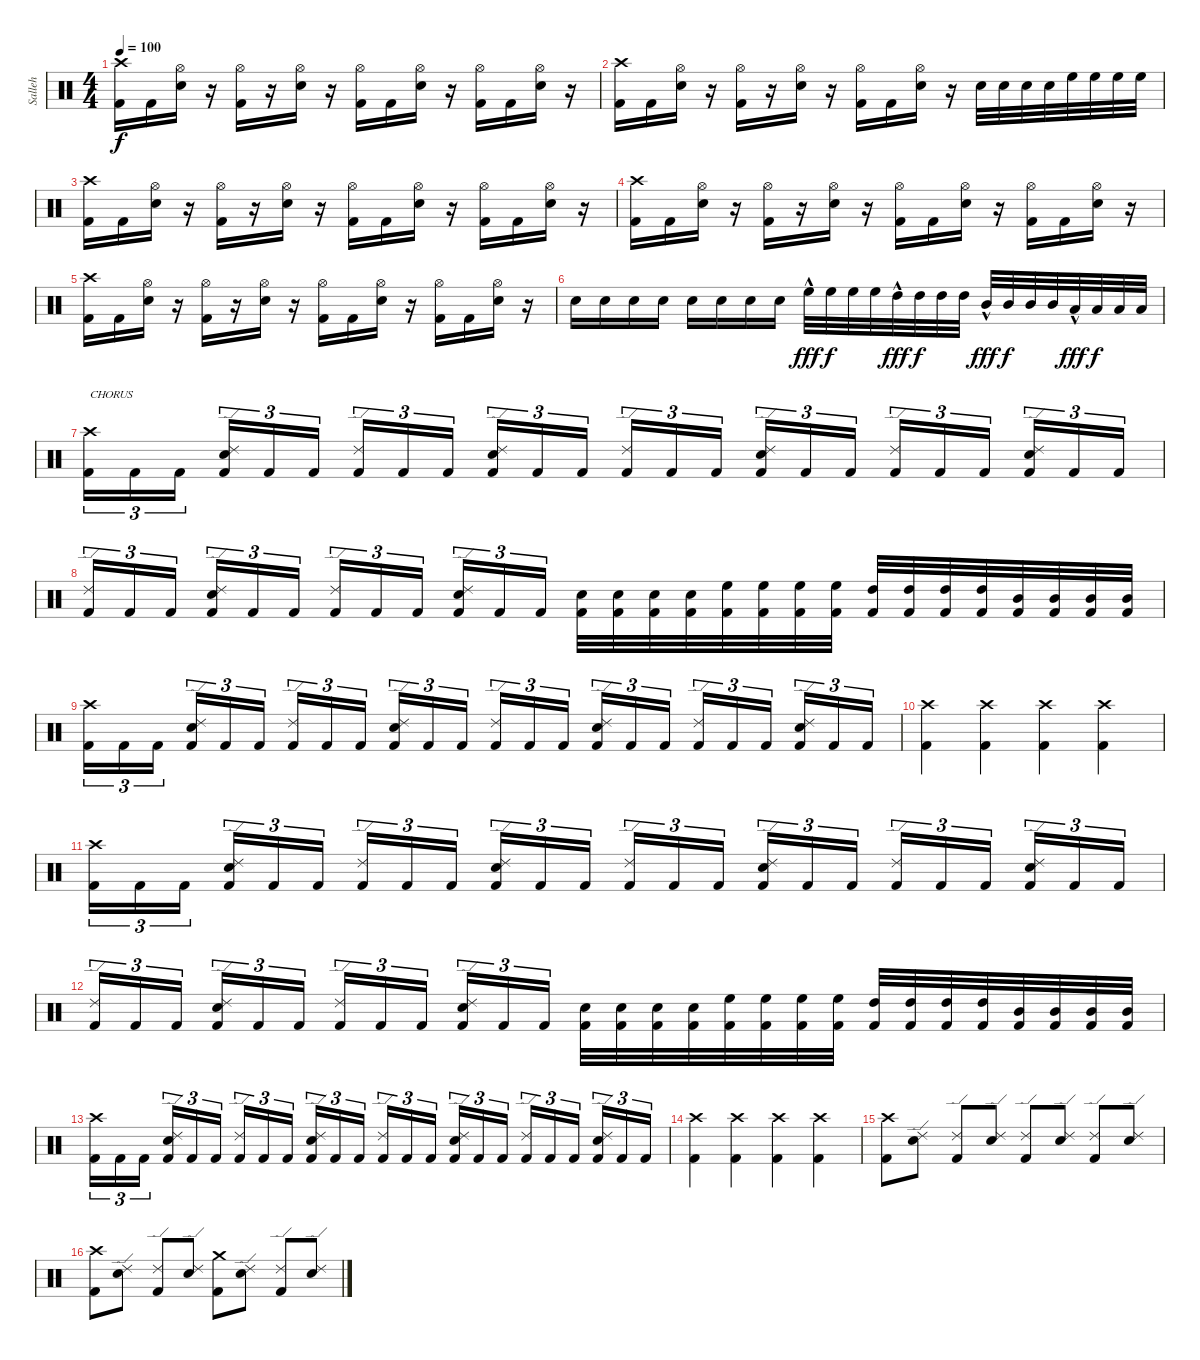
\track ("Salleh" "Salleh") {instrument percussion}
\staff {score}
\articulation defaults
\ts (4 4)
\tempo 100
\clef neutral
\ks c
("Crash high (hit)" "Kick (hit) 2").16{dy f} "Kick (hit) 2".16 ("Hi-Hat (open)" "Electric Snare (hit)").16 r.16 ("Hi-Hat (open)" "Kick (hit) 2").16 r.16 ("Hi-Hat (open)" "Electric Snare (hit)").16 r.16 ("Hi-Hat (open)" "Kick (hit) 2").16 "Kick (hit) 2".16 ("Hi-Hat (open)" "Electric Snare (hit)").16 r.16 ("Hi-Hat (open)" "Kick (hit) 2").16 "Kick (hit) 2".16 ("Hi-Hat (open)" "Electric Snare (hit)").16 r.16 |
("Crash high (hit)" "Kick (hit) 2").16 "Kick (hit) 2".16 ("Hi-Hat (open)" "Electric Snare (hit)").16 r.16 ("Hi-Hat (open)" "Kick (hit) 2").16 r.16 ("Hi-Hat (open)" "Electric Snare (hit)").16 r.16 ("Hi-Hat (open)" "Kick (hit) 2").16 "Kick (hit) 2".16 ("Hi-Hat (open)" "Electric Snare (hit)").16 r.16 "Electric Snare (hit)".32 "Electric Snare (hit)".32 "Electric Snare (hit)".32 "Electric Snare (hit)".32 "High Floor Tom (hit)".32 "High Floor Tom (hit)".32 "High Floor Tom (hit)".32 "High Floor Tom (hit)".32 |
("Crash high (hit)" "Kick (hit) 2").16 "Kick (hit) 2".16 ("Hi-Hat (open)" "Electric Snare (hit)").16 r.16 ("Hi-Hat (open)" "Kick (hit) 2").16 r.16 ("Hi-Hat (open)" "Electric Snare (hit)").16 r.16 ("Hi-Hat (open)" "Kick (hit) 2").16 "Kick (hit) 2".16 ("Hi-Hat (open)" "Electric Snare (hit)").16 r.16 ("Hi-Hat (open)" "Kick (hit) 2").16 "Kick (hit) 2".16 ("Hi-Hat (open)" "Electric Snare (hit)").16 r.16 |
("Crash high (hit)" "Kick (hit) 2").16 "Kick (hit) 2".16 ("Hi-Hat (open)" "Electric Snare (hit)").16 r.16 ("Hi-Hat (open)" "Kick (hit) 2").16 r.16 ("Hi-Hat (open)" "Electric Snare (hit)").16 r.16 ("Hi-Hat (open)" "Kick (hit) 2").16 "Kick (hit) 2".16 ("Hi-Hat (open)" "Electric Snare (hit)").16 r.16 ("Hi-Hat (open)" "Kick (hit) 2").16 "Kick (hit) 2".16 ("Hi-Hat (open)" "Electric Snare (hit)").16 r.16 |
("Crash high (hit)" "Kick (hit) 2").16 "Kick (hit) 2".16 ("Hi-Hat (open)" "Electric Snare (hit)").16 r.16 ("Hi-Hat (open)" "Kick (hit) 2").16 r.16 ("Hi-Hat (open)" "Electric Snare (hit)").16 r.16 ("Hi-Hat (open)" "Kick (hit) 2").16 "Kick (hit) 2".16 ("Hi-Hat (open)" "Electric Snare (hit)").16 r.16 ("Hi-Hat (open)" "Kick (hit) 2").16 "Kick (hit) 2".16 ("Hi-Hat (open)" "Electric Snare (hit)").16 r.16 |
"Electric Snare (hit)".16 "Electric Snare (hit)".16 "Electric Snare (hit)".16 "Electric Snare (hit)".16 "Electric Snare (hit)".16 "Electric Snare (hit)".16 "Electric Snare (hit)".16 "Electric Snare (hit)".16 "High Floor Tom (hit)"{hac}.32{dy fff} "High Floor Tom (hit)".32{dy f} "High Floor Tom (hit)".32 "High Floor Tom (hit)".32 "High Tom (hit)"{hac}.32{dy fff} "High Tom (hit)".32{dy f} "High Tom (hit)".32 "High Tom (hit)".32 "Mid Tom (hit)"{hac}.32{dy fff} "Mid Tom (hit)".32{dy f} "Mid Tom (hit)".32 "Mid Tom (hit)".32 "Low Tom (hit)"{hac}.32{dy fff} "Low Tom (hit)".32{dy f} "Low Tom (hit)".32 "Low Tom (hit)".32 |
("Crash high (hit)" "Kick (hit) 2").16{tu (3 2) txt "CHORUS"} "Kick (hit) 2".16{tu (3 2)} "Kick (hit) 2".16{tu (3 2) beam splitsecondary} ("Ride (edge) 2" "Electric Snare (hit)" "Kick (hit) 2").16{tu (3 2)} "Kick (hit) 2".16{tu (3 2)} "Kick (hit) 2".16{tu (3 2)} ("Ride (edge) 2" "Kick (hit) 2").16{tu (3 2)} "Kick (hit) 2".16{tu (3 2)} "Kick (hit) 2".16{tu (3 2) beam splitsecondary} ("Ride (edge) 2" "Electric Snare (hit)" "Kick (hit) 2").16{tu (3 2)} "Kick (hit) 2".16{tu (3 2)} "Kick (hit) 2".16{tu (3 2)} ("Ride (edge) 2" "Kick (hit) 2").16{tu (3 2)} "Kick (hit) 2".16{tu (3 2)} "Kick (hit) 2".16{tu (3 2) beam splitsecondary} ("Ride (edge) 2" "Electric Snare (hit)" "Kick (hit) 2").16{tu (3 2)} "Kick (hit) 2".16{tu (3 2)} "Kick (hit) 2".16{tu (3 2)} ("Ride (edge) 2" "Kick (hit) 2").16{tu (3 2)} "Kick (hit) 2".16{tu (3 2)} "Kick (hit) 2".16{tu (3 2) beam splitsecondary} ("Ride (edge) 2" "Electric Snare (hit)" "Kick (hit) 2").16{tu (3 2)} "Kick (hit) 2".16{tu (3 2)} "Kick (hit) 2".16{tu (3 2)} |
("Ride (edge) 2" "Kick (hit) 2").16{tu (3 2)} "Kick (hit) 2".16{tu (3 2)} "Kick (hit) 2".16{tu (3 2) beam splitsecondary} ("Ride (edge) 2" "Electric Snare (hit)" "Kick (hit) 2").16{tu (3 2)} "Kick (hit) 2".16{tu (3 2)} "Kick (hit) 2".16{tu (3 2)} ("Ride (edge) 2" "Kick (hit) 2").16{tu (3 2)} "Kick (hit) 2".16{tu (3 2)} "Kick (hit) 2".16{tu (3 2) beam splitsecondary} ("Ride (edge) 2" "Electric Snare (hit)" "Kick (hit) 2").16{tu (3 2)} "Kick (hit) 2".16{tu (3 2)} "Kick (hit) 2".16{tu (3 2)} ("Electric Snare (hit)" "Kick (hit) 2").32 ("Electric Snare (hit)" "Kick (hit) 2").32 ("Electric Snare (hit)" "Kick (hit) 2").32 ("Electric Snare (hit)" "Kick (hit) 2").32 ("High Floor Tom (hit)" "Kick (hit) 2").32 ("High Floor Tom (hit)" "Kick (hit) 2").32 ("High Floor Tom (hit)" "Kick (hit) 2").32 ("High Floor Tom (hit)" "Kick (hit) 2").32 ("High Tom (hit)" "Kick (hit) 2").32 ("High Tom (hit)" "Kick (hit) 2").32 ("High Tom (hit)" "Kick (hit) 2").32 ("High Tom (hit)" "Kick (hit) 2").32 ("Mid Tom (hit)" "Kick (hit) 2").32 ("Mid Tom (hit)" "Kick (hit) 2").32 ("Mid Tom (hit)" "Kick (hit) 2").32 ("Mid Tom (hit)" "Kick (hit) 2").32 |
("Crash high (hit)" "Kick (hit) 2").16{tu (3 2)} "Kick (hit) 2".16{tu (3 2)} "Kick (hit) 2".16{tu (3 2) beam splitsecondary} ("Ride (edge) 2" "Electric Snare (hit)" "Kick (hit) 2").16{tu (3 2)} "Kick (hit) 2".16{tu (3 2)} "Kick (hit) 2".16{tu (3 2)} ("Ride (edge) 2" "Kick (hit) 2").16{tu (3 2)} "Kick (hit) 2".16{tu (3 2)} "Kick (hit) 2".16{tu (3 2) beam splitsecondary} ("Ride (edge) 2" "Electric Snare (hit)" "Kick (hit) 2").16{tu (3 2)} "Kick (hit) 2".16{tu (3 2)} "Kick (hit) 2".16{tu (3 2)} ("Ride (edge) 2" "Kick (hit) 2").16{tu (3 2)} "Kick (hit) 2".16{tu (3 2)} "Kick (hit) 2".16{tu (3 2) beam splitsecondary} ("Ride (edge) 2" "Electric Snare (hit)" "Kick (hit) 2").16{tu (3 2)} "Kick (hit) 2".16{tu (3 2)} "Kick (hit) 2".16{tu (3 2)} ("Ride (edge) 2" "Kick (hit) 2").16{tu (3 2)} "Kick (hit) 2".16{tu (3 2)} "Kick (hit) 2".16{tu (3 2) beam splitsecondary} ("Ride (edge) 2" "Electric Snare (hit)" "Kick (hit) 2").16{tu (3 2)} "Kick (hit) 2".16{tu (3 2)} "Kick (hit) 2".16{tu (3 2)} |
("Crash high (hit)" "Kick (hit) 2").4 ("Crash high (hit)" "Kick (hit) 2").4 ("Crash high (hit)" "Kick (hit) 2").4 ("Crash high (hit)" "Kick (hit) 2").4 |
("Crash high (hit)" "Kick (hit) 2").16{tu (3 2)} "Kick (hit) 2".16{tu (3 2)} "Kick (hit) 2".16{tu (3 2) beam splitsecondary} ("Ride (edge) 2" "Electric Snare (hit)" "Kick (hit) 2").16{tu (3 2)} "Kick (hit) 2".16{tu (3 2)} "Kick (hit) 2".16{tu (3 2)} ("Ride (edge) 2" "Kick (hit) 2").16{tu (3 2)} "Kick (hit) 2".16{tu (3 2)} "Kick (hit) 2".16{tu (3 2) beam splitsecondary} ("Ride (edge) 2" "Electric Snare (hit)" "Kick (hit) 2").16{tu (3 2)} "Kick (hit) 2".16{tu (3 2)} "Kick (hit) 2".16{tu (3 2)} ("Ride (edge) 2" "Kick (hit) 2").16{tu (3 2)} "Kick (hit) 2".16{tu (3 2)} "Kick (hit) 2".16{tu (3 2) beam splitsecondary} ("Ride (edge) 2" "Electric Snare (hit)" "Kick (hit) 2").16{tu (3 2)} "Kick (hit) 2".16{tu (3 2)} "Kick (hit) 2".16{tu (3 2)} ("Ride (edge) 2" "Kick (hit) 2").16{tu (3 2)} "Kick (hit) 2".16{tu (3 2)} "Kick (hit) 2".16{tu (3 2) beam splitsecondary} ("Ride (edge) 2" "Electric Snare (hit)" "Kick (hit) 2").16{tu (3 2)} "Kick (hit) 2".16{tu (3 2)} "Kick (hit) 2".16{tu (3 2)} |
("Ride (edge) 2" "Kick (hit) 2").16{tu (3 2)} "Kick (hit) 2".16{tu (3 2)} "Kick (hit) 2".16{tu (3 2) beam splitsecondary} ("Ride (edge) 2" "Electric Snare (hit)" "Kick (hit) 2").16{tu (3 2)} "Kick (hit) 2".16{tu (3 2)} "Kick (hit) 2".16{tu (3 2)} ("Ride (edge) 2" "Kick (hit) 2").16{tu (3 2)} "Kick (hit) 2".16{tu (3 2)} "Kick (hit) 2".16{tu (3 2) beam splitsecondary} ("Ride (edge) 2" "Electric Snare (hit)" "Kick (hit) 2").16{tu (3 2)} "Kick (hit) 2".16{tu (3 2)} "Kick (hit) 2".16{tu (3 2)} ("Electric Snare (hit)" "Kick (hit) 2").32 ("Electric Snare (hit)" "Kick (hit) 2").32 ("Electric Snare (hit)" "Kick (hit) 2").32 ("Electric Snare (hit)" "Kick (hit) 2").32 ("High Floor Tom (hit)" "Kick (hit) 2").32 ("High Floor Tom (hit)" "Kick (hit) 2").32 ("High Floor Tom (hit)" "Kick (hit) 2").32 ("High Floor Tom (hit)" "Kick (hit) 2").32 ("High Tom (hit)" "Kick (hit) 2").32 ("High Tom (hit)" "Kick (hit) 2").32 ("High Tom (hit)" "Kick (hit) 2").32 ("High Tom (hit)" "Kick (hit) 2").32 ("Mid Tom (hit)" "Kick (hit) 2").32 ("Mid Tom (hit)" "Kick (hit) 2").32 ("Mid Tom (hit)" "Kick (hit) 2").32 ("Mid Tom (hit)" "Kick (hit) 2").32 |
("Crash high (hit)" "Kick (hit) 2").16{tu (3 2)} "Kick (hit) 2".16{tu (3 2)} "Kick (hit) 2".16{tu (3 2) beam splitsecondary} ("Ride (edge) 2" "Electric Snare (hit)" "Kick (hit) 2").16{tu (3 2)} "Kick (hit) 2".16{tu (3 2)} "Kick (hit) 2".16{tu (3 2)} ("Ride (edge) 2" "Kick (hit) 2").16{tu (3 2)} "Kick (hit) 2".16{tu (3 2)} "Kick (hit) 2".16{tu (3 2) beam splitsecondary} ("Ride (edge) 2" "Electric Snare (hit)" "Kick (hit) 2").16{tu (3 2)} "Kick (hit) 2".16{tu (3 2)} "Kick (hit) 2".16{tu (3 2)} ("Ride (edge) 2" "Kick (hit) 2").16{tu (3 2)} "Kick (hit) 2".16{tu (3 2)} "Kick (hit) 2".16{tu (3 2) beam splitsecondary} ("Ride (edge) 2" "Electric Snare (hit)" "Kick (hit) 2").16{tu (3 2)} "Kick (hit) 2".16{tu (3 2)} "Kick (hit) 2".16{tu (3 2)} ("Ride (edge) 2" "Kick (hit) 2").16{tu (3 2)} "Kick (hit) 2".16{tu (3 2)} "Kick (hit) 2".16{tu (3 2) beam splitsecondary} ("Ride (edge) 2" "Electric Snare (hit)" "Kick (hit) 2").16{tu (3 2)} "Kick (hit) 2".16{tu (3 2)} "Kick (hit) 2".16{tu (3 2)} |
("Crash high (hit)" "Kick (hit) 2").4 ("Crash high (hit)" "Kick (hit) 2").4 ("Crash high (hit)" "Kick (hit) 2").4 ("Crash high (hit)" "Kick (hit) 2").4 |
("Crash high (hit)" "Kick (hit) 2").8 ("Ride (edge) 2" "Electric Snare (hit)").8 ("Ride (edge) 2" "Kick (hit) 2").8 ("Ride (edge) 2" "Electric Snare (hit)").8 ("Ride (edge) 2" "Kick (hit) 2").8 ("Ride (edge) 2" "Electric Snare (hit)").8 ("Ride (edge) 2" "Kick (hit) 2").8 ("Ride (edge) 2" "Electric Snare (hit)").8 |
("Crash high (hit)" "Kick (hit) 2").8 ("Ride (edge) 2" "Electric Snare (hit)").8 ("Ride (edge) 2" "Kick (hit) 2").8 ("Ride (edge) 2" "Electric Snare (hit)").8 ("Crash medium (hit)" "Kick (hit) 2").8 ("Ride (edge) 2" "Electric Snare (hit)").8 ("Ride (edge) 2" "Kick (hit) 2").8 ("Ride (edge) 2" "Electric Snare (hit)").8
